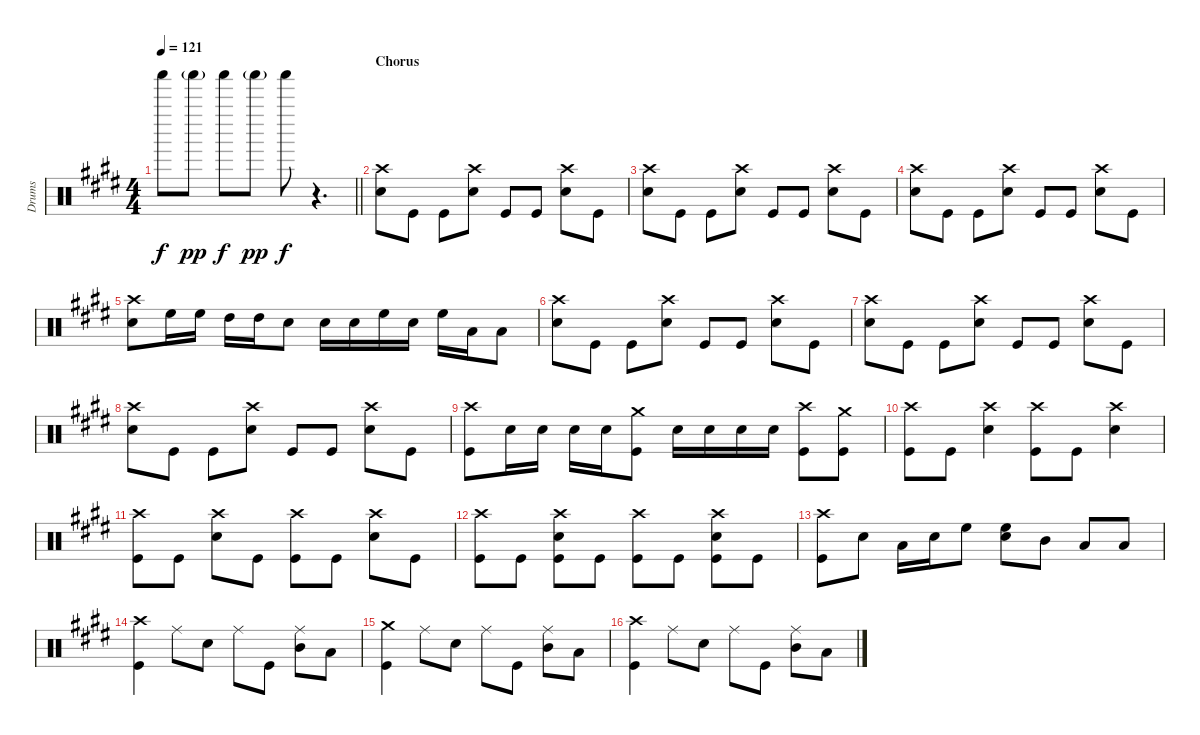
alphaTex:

\track ("Drums" "Drums") {instrument percussion}
\staff {score}
\articulation defaults
\ts (4 4)
\tempo 121
\clef neutral
\barLineRight lightlight
\ks e "Shaker (hit)".8{dy f} "Shaker (hit)"{g}.8{dy pp} "Shaker (hit)".8{dy f} "Shaker (hit)"{g}.8{dy pp} "Shaker (hit)".8{dy f}
r.4{d} |
\section ("" "Chorus")
("Crash high (hit)" "Snare (hit) 2").8 "Kick (hit)".8 "Kick (hit)".8 ("Crash high (hit)" "Snare (hit) 2").8 "Kick (hit)".8 "Kick (hit)".8 ("Crash high (hit)" "Snare (hit) 2").8 "Kick (hit)".8 |
("Crash high (hit)" "Snare (hit) 2").8 "Kick (hit)".8 "Kick (hit)".8 ("Crash high (hit)" "Snare (hit) 2").8 "Kick (hit)".8 "Kick (hit)".8 ("Crash high (hit)" "Snare (hit) 2").8 "Kick (hit)".8 |
("Crash high (hit)" "Snare (hit) 2").8 "Kick (hit)".8 "Kick (hit)".8 ("Crash high (hit)" "Snare (hit) 2").8 "Kick (hit)".8 "Kick (hit)".8 ("Crash high (hit)" "Snare (hit) 2").8 "Kick (hit)".8 |
("Crash high (hit)" "Snare (hit) 2").8 "High Floor Tom (hit)".16 "High Floor Tom (hit)".16 "High Tom (hit)".16 "High Tom (hit)".16 "Snare (hit) 2".8 "Snare (hit) 2".16 "Snare (hit) 2".16 "High Floor Tom (hit)".16 "Snare (hit) 2".16 "High Floor Tom (hit)".16 "Low Tom (hit)".16 "Low Floor Tom (hit)".8 |
("Crash high (hit)" "Snare (hit) 2").8 "Kick (hit)".8 "Kick (hit)".8 ("Crash high (hit)" "Snare (hit) 2").8 "Kick (hit)".8 "Kick (hit)".8 ("Crash high (hit)" "Snare (hit) 2").8 "Kick (hit)".8 |
("Crash high (hit)" "Snare (hit) 2").8 "Kick (hit)".8 "Kick (hit)".8 ("Crash high (hit)" "Snare (hit) 2").8 "Kick (hit)".8 "Kick (hit)".8 ("Crash high (hit)" "Snare (hit) 2").8 "Kick (hit)".8 |
("Crash high (hit)" "Snare (hit) 2").8 "Kick (hit)".8 "Kick (hit)".8 ("Crash high (hit)" "Snare (hit) 2").8 "Kick (hit)".8 "Kick (hit)".8 ("Crash high (hit)" "Snare (hit) 2").8 "Kick (hit)".8 |
("Crash high (hit)" "Kick (hit)").8 "Snare (hit) 2".16 "Snare (hit) 2".16 "Snare (hit) 2".16 "Snare (hit) 2".16 ("Crash medium (hit)" "Kick (hit)").8 "Snare (hit) 2".16 "Snare (hit) 2".16 "Snare (hit) 2".16 "Snare (hit) 2".16 ("Crash high (hit)" "Kick (hit)").8 ("Crash medium (hit)" "Kick (hit)").8 |
("Crash high (hit)" "Kick (hit)").8 "Kick (hit)".8 ("Crash high (hit)" "Snare (hit) 2").4 ("Crash high (hit)" "Kick (hit)").8 "Kick (hit)".8 ("Crash high (hit)" "Snare (hit) 2").4 |
("Crash high (hit)" "Kick (hit)").8 "Kick (hit)".8 ("Crash high (hit)" "Snare (hit) 2").8 "Kick (hit)".8 ("Crash high (hit)" "Kick (hit)").8 "Kick (hit)".8 ("Crash high (hit)" "Snare (hit) 2").8 "Kick (hit)".8 |
("Crash high (hit)" "Kick (hit)").8 "Kick (hit)".8 ("Crash high (hit)" "Snare (hit) 2" "Kick (hit)").8 "Kick (hit)".8 ("Crash high (hit)" "Kick (hit)").8 "Kick (hit)".8 ("Crash high (hit)" "Snare (hit) 2" "Kick (hit)").8 "Kick (hit)".8 |
("Crash high (hit)" "Kick (hit)").8 "Snare (hit) 2".8 "Low Floor Tom (hit)".16 "Snare (hit) 2".16 "High Floor Tom (hit)".8 ("High Floor Tom (hit)" "Snare (hit) 2").8 "Mid Tom (hit)".8 "Low Floor Tom (hit)".8 "Low Floor Tom (hit)".8 |
("Crash high (hit)" "Kick (hit)").4 "Ride (middle)".8 "Snare (hit) 2".8 "Ride (middle)".8 "Kick (hit)".8 ("Ride (middle)" "Mid Tom (hit)").8 "Low Floor Tom (hit)".8 |
("Crash medium (hit)" "Kick (hit)").4 "Ride (middle)".8 "Snare (hit) 2".8 "Ride (middle)".8 "Kick (hit)".8 ("Ride (middle)" "Mid Tom (hit)").8 "Low Floor Tom (hit)".8 |
("Crash high (hit)" "Kick (hit)").4 "Ride (middle)".8 "Snare (hit) 2".8 "Ride (middle)".8 "Kick (hit)".8 ("Ride (middle)" "Mid Tom (hit)").8 "Low Floor Tom (hit)".8
